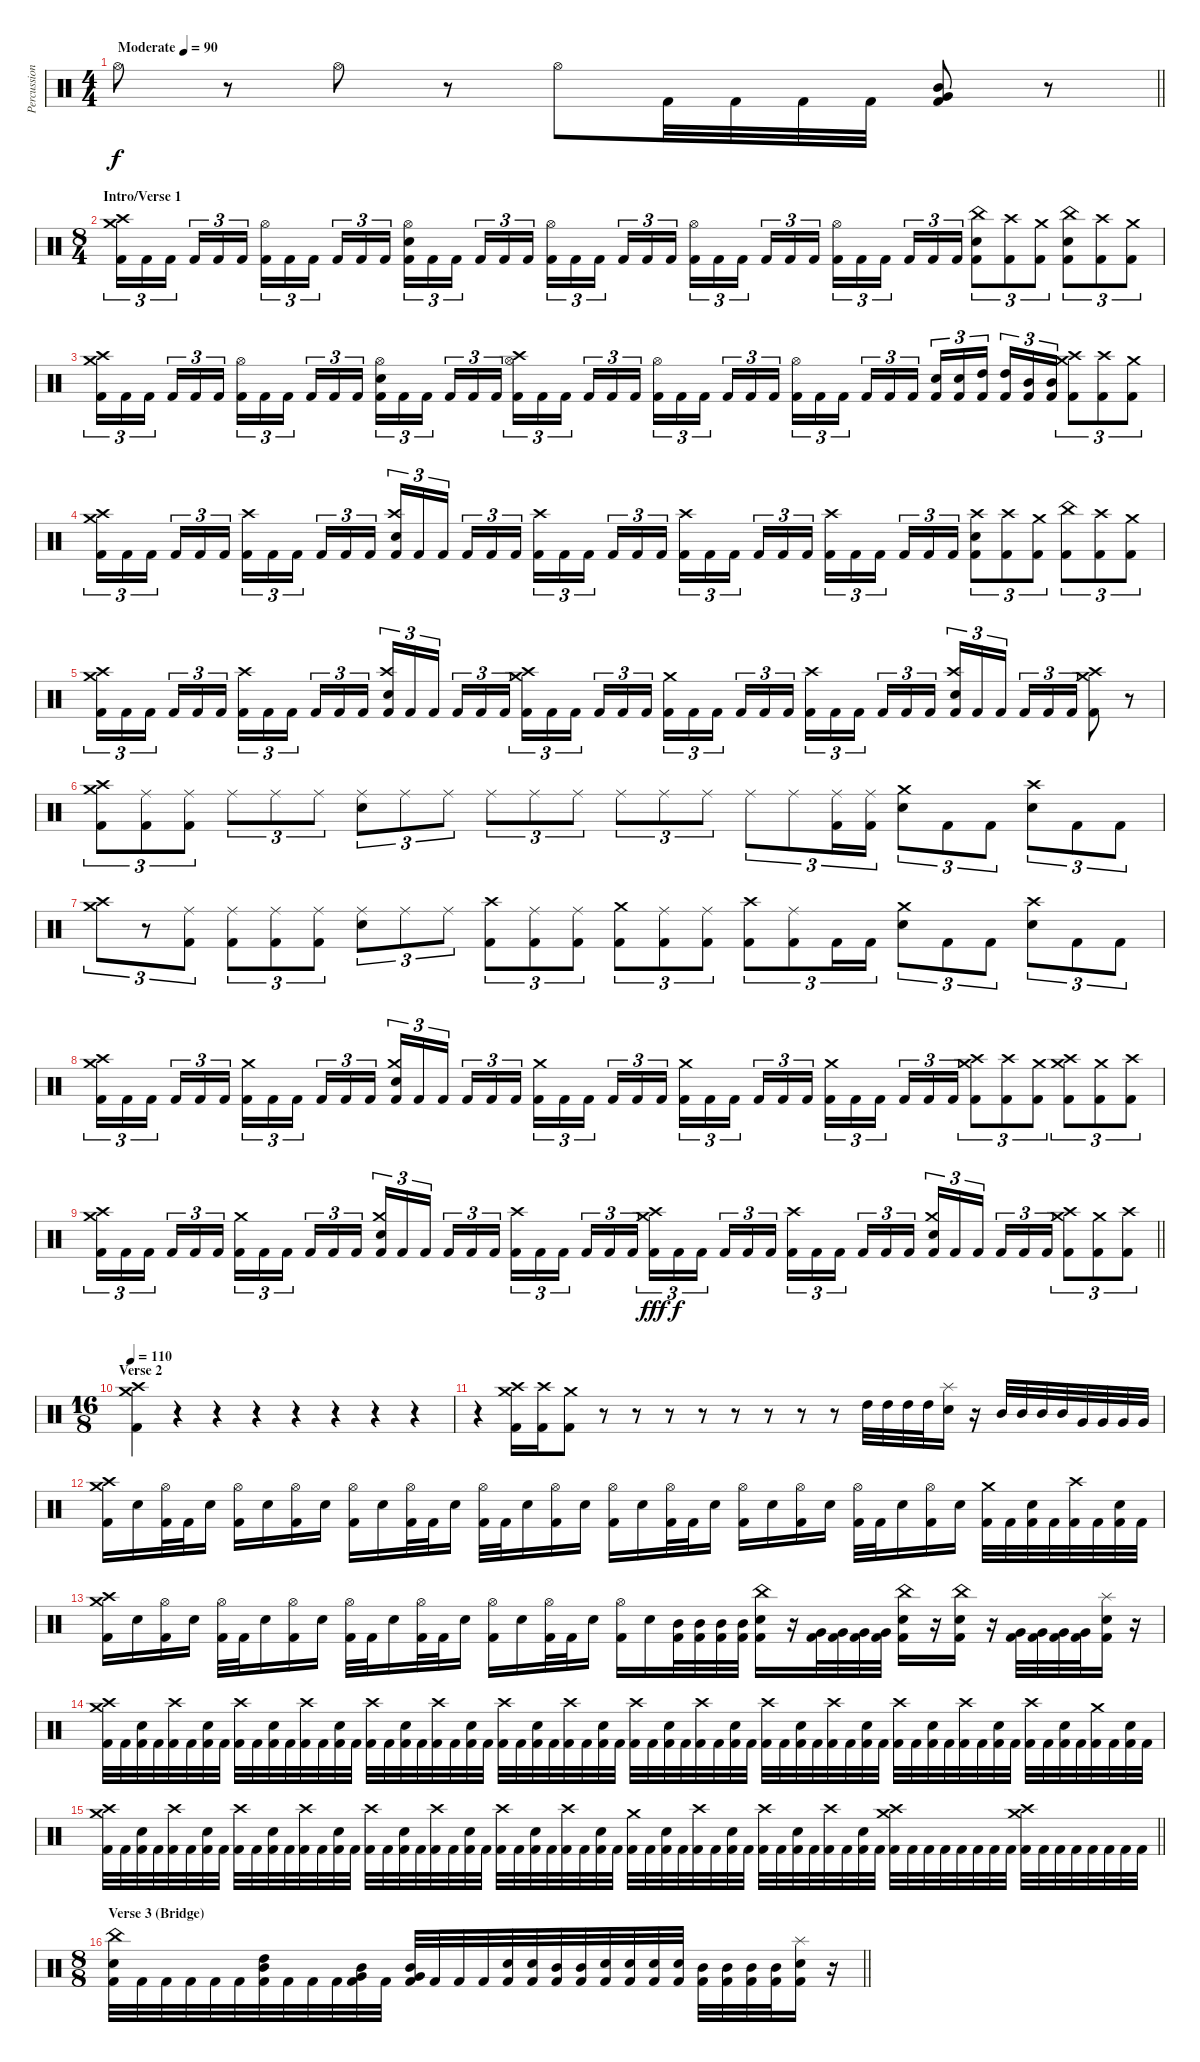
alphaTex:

\track ("Percussion" "Percussion") {instrument percussion}
\staff {score}
\articulation defaults
\ts (4 4)
\tempo (90 "Moderate")
\clef neutral
\barLineRight lightlight
\ks c "Hi-Hat (open)".8{dy f}
r.8 "Hi-Hat (open)".8 r.8 "Hi-Hat (open)".8 "Kick (hit) 2".32 "Kick (hit) 2".32 "Kick (hit) 2".32 "Kick (hit) 2".32 ("Mid Tom (hit)" "Very Low Tom (hit)" "Kick (hit) 2").8 r.8 |
\ts (8 4)
\section ("" "Intro/Verse 1")
("Crash medium (hit)" "Crash high (hit)" "Kick (hit) 2").16{tu (3 2)} "Kick (hit) 2".16{tu (3 2)} "Kick (hit) 2".16{tu (3 2) beam splitsecondary} "Kick (hit) 2".16{tu (3 2)} "Kick (hit) 2".16{tu (3 2)} "Kick (hit) 2".16{tu (3 2)} ("Hi-Hat (open)" "Kick (hit) 2").16{tu (3 2)} "Kick (hit) 2".16{tu (3 2)} "Kick (hit) 2".16{tu (3 2) beam splitsecondary} "Kick (hit) 2".16{tu (3 2)} "Kick (hit) 2".16{tu (3 2)} "Kick (hit) 2".16{tu (3 2)} ("Hi-Hat (open)" "Snare (hit) 2" "Kick (hit) 2").16{tu (3 2)} "Kick (hit) 2".16{tu (3 2)} "Kick (hit) 2".16{tu (3 2) beam splitsecondary} "Kick (hit) 2".16{tu (3 2)} "Kick (hit) 2".16{tu (3 2)} "Kick (hit) 2".16{tu (3 2)} ("Hi-Hat (open)" "Kick (hit) 2").16{tu (3 2)} "Kick (hit) 2".16{tu (3 2)} "Kick (hit) 2".16{tu (3 2) beam splitsecondary} "Kick (hit) 2".16{tu (3 2)} "Kick (hit) 2".16{tu (3 2)} "Kick (hit) 2".16{tu (3 2)} ("Hi-Hat (open)" "Kick (hit) 2").16{tu (3 2)} "Kick (hit) 2".16{tu (3 2)} "Kick (hit) 2".16{tu (3 2) beam splitsecondary} "Kick (hit) 2".16{tu (3 2)} "Kick (hit) 2".16{tu (3 2)} "Kick (hit) 2".16{tu (3 2)} ("Hi-Hat (open)" "Kick (hit) 2").16{tu (3 2)} "Kick (hit) 2".16{tu (3 2)} "Kick (hit) 2".16{tu (3 2) beam splitsecondary} "Kick (hit) 2".16{tu (3 2)} "Kick (hit) 2".16{tu (3 2)} "Kick (hit) 2".16{tu (3 2)} ("China (hit)" "Snare (hit) 2" "Kick (hit) 2").8{tu (3 2)} ("Crash high (hit)" "Kick (hit) 2").8{tu (3 2)} ("Crash medium (hit)" "Kick (hit) 2").8{tu (3 2)} ("China (hit)" "Snare (hit) 2" "Kick (hit) 2").8{tu (3 2)} ("Crash high (hit)" "Kick (hit) 2").8{tu (3 2)} ("Crash medium (hit)" "Kick (hit) 2").8{tu (3 2)} |
("Crash medium (hit)" "Crash high (hit)" "Kick (hit) 2").16{tu (3 2)} "Kick (hit) 2".16{tu (3 2)} "Kick (hit) 2".16{tu (3 2) beam splitsecondary} "Kick (hit) 2".16{tu (3 2)} "Kick (hit) 2".16{tu (3 2)} "Kick (hit) 2".16{tu (3 2)} ("Hi-Hat (open)" "Kick (hit) 2").16{tu (3 2)} "Kick (hit) 2".16{tu (3 2)} "Kick (hit) 2".16{tu (3 2) beam splitsecondary} "Kick (hit) 2".16{tu (3 2)} "Kick (hit) 2".16{tu (3 2)} "Kick (hit) 2".16{tu (3 2)} ("Hi-Hat (open)" "Snare (hit) 2" "Kick (hit) 2").16{tu (3 2)} "Kick (hit) 2".16{tu (3 2)} "Kick (hit) 2".16{tu (3 2) beam splitsecondary} "Kick (hit) 2".16{tu (3 2)} "Kick (hit) 2".16{tu (3 2)} "Kick (hit) 2".16{tu (3 2)} ("Crash high (hit)" "Hi-Hat (open)" "Kick (hit) 2").16{tu (3 2)} "Kick (hit) 2".16{tu (3 2)} "Kick (hit) 2".16{tu (3 2) beam splitsecondary} "Kick (hit) 2".16{tu (3 2)} "Kick (hit) 2".16{tu (3 2)} "Kick (hit) 2".16{tu (3 2)} ("Hi-Hat (open)" "Kick (hit) 2").16{tu (3 2)} "Kick (hit) 2".16{tu (3 2)} "Kick (hit) 2".16{tu (3 2) beam splitsecondary} "Kick (hit) 2".16{tu (3 2)} "Kick (hit) 2".16{tu (3 2)} "Kick (hit) 2".16{tu (3 2)} ("Hi-Hat (open)" "Kick (hit) 2").16{tu (3 2)} "Kick (hit) 2".16{tu (3 2)} "Kick (hit) 2".16{tu (3 2) beam splitsecondary} "Kick (hit) 2".16{tu (3 2)} "Kick (hit) 2".16{tu (3 2)} "Kick (hit) 2".16{tu (3 2)} ("Snare (hit) 2" "Kick (hit) 2").16{tu (3 2)} ("Snare (hit) 2" "Kick (hit) 2").16{tu (3 2)} ("High Tom (hit)" "Kick (hit) 2").16{tu (3 2) beam splitsecondary} ("High Tom (hit)" "Kick (hit) 2").16{tu (3 2)} ("Mid Tom (hit)" "Kick (hit) 2").16{tu (3 2)} ("Mid Tom (hit)" "Kick (hit) 2").16{tu (3 2)} ("Crash medium (hit)" "Crash high (hit)" "Kick (hit) 2").8{tu (3 2)} ("Crash high (hit)" "Kick (hit) 2").8{tu (3 2)} ("Crash medium (hit)" "Kick (hit) 2").8{tu (3 2)} |
("Crash medium (hit)" "Crash high (hit)" "Kick (hit) 2").16{tu (3 2)} "Kick (hit) 2".16{tu (3 2)} "Kick (hit) 2".16{tu (3 2) beam splitsecondary} "Kick (hit) 2".16{tu (3 2)} "Kick (hit) 2".16{tu (3 2)} "Kick (hit) 2".16{tu (3 2)} ("Crash high (hit)" "Kick (hit) 2").16{tu (3 2)} "Kick (hit) 2".16{tu (3 2)} "Kick (hit) 2".16{tu (3 2) beam splitsecondary} "Kick (hit) 2".16{tu (3 2)} "Kick (hit) 2".16{tu (3 2)} "Kick (hit) 2".16{tu (3 2)} ("Crash high (hit)" "Snare (hit) 2" "Kick (hit) 2").16{tu (3 2)} "Kick (hit) 2".16{tu (3 2)} "Kick (hit) 2".16{tu (3 2) beam splitsecondary} "Kick (hit) 2".16{tu (3 2)} "Kick (hit) 2".16{tu (3 2)} "Kick (hit) 2".16{tu (3 2)} ("Crash high (hit)" "Kick (hit) 2").16{tu (3 2)} "Kick (hit) 2".16{tu (3 2)} "Kick (hit) 2".16{tu (3 2) beam splitsecondary} "Kick (hit) 2".16{tu (3 2)} "Kick (hit) 2".16{tu (3 2)} "Kick (hit) 2".16{tu (3 2)} ("Crash high (hit)" "Kick (hit) 2").16{tu (3 2)} "Kick (hit) 2".16{tu (3 2)} "Kick (hit) 2".16{tu (3 2) beam splitsecondary} "Kick (hit) 2".16{tu (3 2)} "Kick (hit) 2".16{tu (3 2)} "Kick (hit) 2".16{tu (3 2)} ("Crash high (hit)" "Kick (hit) 2").16{tu (3 2)} "Kick (hit) 2".16{tu (3 2)} "Kick (hit) 2".16{tu (3 2) beam splitsecondary} "Kick (hit) 2".16{tu (3 2)} "Kick (hit) 2".16{tu (3 2)} "Kick (hit) 2".16{tu (3 2)} ("Crash high (hit)" "Snare (hit) 2" "Kick (hit) 2").8{tu (3 2)} ("Crash high (hit)" "Kick (hit) 2").8{tu (3 2)} ("Crash medium (hit)" "Kick (hit) 2").8{tu (3 2)} ("China (hit)" "Kick (hit) 2").8{tu (3 2)} ("Crash high (hit)" "Kick (hit) 2").8{tu (3 2)} ("Crash medium (hit)" "Kick (hit) 2").8{tu (3 2)} |
("Crash medium (hit)" "Crash high (hit)" "Kick (hit) 2").16{tu (3 2)} "Kick (hit) 2".16{tu (3 2)} "Kick (hit) 2".16{tu (3 2) beam splitsecondary} "Kick (hit) 2".16{tu (3 2)} "Kick (hit) 2".16{tu (3 2)} "Kick (hit) 2".16{tu (3 2)} ("Crash high (hit)" "Kick (hit) 2").16{tu (3 2)} "Kick (hit) 2".16{tu (3 2)} "Kick (hit) 2".16{tu (3 2) beam splitsecondary} "Kick (hit) 2".16{tu (3 2)} "Kick (hit) 2".16{tu (3 2)} "Kick (hit) 2".16{tu (3 2)} ("Crash high (hit)" "Snare (hit) 2" "Kick (hit) 2").16{tu (3 2)} "Kick (hit) 2".16{tu (3 2)} "Kick (hit) 2".16{tu (3 2) beam splitsecondary} "Kick (hit) 2".16{tu (3 2)} "Kick (hit) 2".16{tu (3 2)} "Kick (hit) 2".16{tu (3 2)} ("Crash medium (hit)" "Crash high (hit)" "Kick (hit) 2").16{tu (3 2)} "Kick (hit) 2".16{tu (3 2)} "Kick (hit) 2".16{tu (3 2) beam splitsecondary} "Kick (hit) 2".16{tu (3 2)} "Kick (hit) 2".16{tu (3 2)} "Kick (hit) 2".16{tu (3 2)} ("Crash medium (hit)" "Kick (hit) 2").16{tu (3 2)} "Kick (hit) 2".16{tu (3 2)} "Kick (hit) 2".16{tu (3 2) beam splitsecondary} "Kick (hit) 2".16{tu (3 2)} "Kick (hit) 2".16{tu (3 2)} "Kick (hit) 2".16{tu (3 2)} ("Crash high (hit)" "Kick (hit) 2").16{tu (3 2)} "Kick (hit) 2".16{tu (3 2)} "Kick (hit) 2".16{tu (3 2) beam splitsecondary} "Kick (hit) 2".16{tu (3 2)} "Kick (hit) 2".16{tu (3 2)} "Kick (hit) 2".16{tu (3 2)} ("Crash high (hit)" "Snare (hit) 2" "Kick (hit) 2").16{tu (3 2)} "Kick (hit) 2".16{tu (3 2)} "Kick (hit) 2".16{tu (3 2) beam splitsecondary} "Kick (hit) 2".16{tu (3 2)} "Kick (hit) 2".16{tu (3 2)} "Kick (hit) 2".16{tu (3 2)} ("Crash medium (hit)" "Crash high (hit)" "Kick (hit) 2").8 r.8 |
("Crash medium (hit)" "Crash high (hit)" "Kick (hit) 2").8{tu (3 2)} ("Ride (middle)" "Kick (hit) 2").8{tu (3 2)} ("Ride (middle)" "Kick (hit) 2").8{tu (3 2)} "Ride (middle)".8{tu (3 2)} "Ride (middle)".8{tu (3 2)} "Ride (middle)".8{tu (3 2)} ("Ride (middle)" "Snare (hit) 2").8{tu (3 2)} "Ride (middle)".8{tu (3 2)} "Ride (middle)".8{tu (3 2)} "Ride (middle)".8{tu (3 2)} "Ride (middle)".8{tu (3 2)} "Ride (middle)".8{tu (3 2)} "Ride (middle)".8{tu (3 2)} "Ride (middle)".8{tu (3 2)} "Ride (middle)".8{tu (3 2)} "Ride (middle)".8{tu (3 2)} "Ride (middle)".8{tu (3 2)} ("Ride (middle)" "Kick (hit) 2").16{tu (3 2)} ("Ride (middle)" "Kick (hit) 2").16{tu (3 2)} ("Crash medium (hit)" "Snare (hit) 2").8{tu (3 2)} "Kick (hit) 2".8{tu (3 2)} "Kick (hit) 2".8{tu (3 2)} ("Crash high (hit)" "Snare (hit) 2").8{tu (3 2)} "Kick (hit) 2".8{tu (3 2)} "Kick (hit) 2".8{tu (3 2)} |
("Crash medium (hit)" "Crash high (hit)").8{tu (3 2)} r.8{tu (3 2)} ("Ride (middle)" "Kick (hit) 2").8{tu (3 2)} ("Ride (middle)" "Kick (hit) 2").8{tu (3 2)} ("Ride (middle)" "Kick (hit) 2").8{tu (3 2)} ("Ride (middle)" "Kick (hit) 2").8{tu (3 2)} ("Ride (middle)" "Snare (hit) 2").8{tu (3 2)} "Ride (middle)".8{tu (3 2)} "Ride (middle)".8{tu (3 2)} ("Crash high (hit)" "Kick (hit) 2").8{tu (3 2)} ("Ride (middle)" "Kick (hit) 2").8{tu (3 2)} ("Ride (middle)" "Kick (hit) 2").8{tu (3 2)} ("Crash medium (hit)" "Kick (hit) 2").8{tu (3 2)} ("Ride (middle)" "Kick (hit) 2").8{tu (3 2)} ("Ride (middle)" "Kick (hit) 2").8{tu (3 2)} ("Crash high (hit)" "Kick (hit) 2").8{tu (3 2)} ("Ride (middle)" "Kick (hit) 2").8{tu (3 2)} "Kick (hit) 2".16{tu (3 2)} "Kick (hit) 2".16{tu (3 2)} ("Crash medium (hit)" "Snare (hit) 2").8{tu (3 2)} "Kick (hit) 2".8{tu (3 2)} "Kick (hit) 2".8{tu (3 2)} ("Crash high (hit)" "Snare (hit) 2").8{tu (3 2)} "Kick (hit) 2".8{tu (3 2)} "Kick (hit) 2".8{tu (3 2)} |
("Crash medium (hit)" "Crash high (hit)" "Kick (hit) 2").16{tu (3 2)} "Kick (hit) 2".16{tu (3 2)} "Kick (hit) 2".16{tu (3 2) beam splitsecondary} "Kick (hit) 2".16{tu (3 2)} "Kick (hit) 2".16{tu (3 2)} "Kick (hit) 2".16{tu (3 2)} ("Crash medium (hit)" "Kick (hit) 2").16{tu (3 2)} "Kick (hit) 2".16{tu (3 2)} "Kick (hit) 2".16{tu (3 2) beam splitsecondary} "Kick (hit) 2".16{tu (3 2)} "Kick (hit) 2".16{tu (3 2)} "Kick (hit) 2".16{tu (3 2)} ("Crash medium (hit)" "Snare (hit) 2" "Kick (hit) 2").16{tu (3 2)} "Kick (hit) 2".16{tu (3 2)} "Kick (hit) 2".16{tu (3 2) beam splitsecondary} "Kick (hit) 2".16{tu (3 2)} "Kick (hit) 2".16{tu (3 2)} "Kick (hit) 2".16{tu (3 2)} ("Crash medium (hit)" "Kick (hit) 2").16{tu (3 2)} "Kick (hit) 2".16{tu (3 2)} "Kick (hit) 2".16{tu (3 2) beam splitsecondary} "Kick (hit) 2".16{tu (3 2)} "Kick (hit) 2".16{tu (3 2)} "Kick (hit) 2".16{tu (3 2)} ("Crash medium (hit)" "Kick (hit) 2").16{tu (3 2)} "Kick (hit) 2".16{tu (3 2)} "Kick (hit) 2".16{tu (3 2) beam splitsecondary} "Kick (hit) 2".16{tu (3 2)} "Kick (hit) 2".16{tu (3 2)} "Kick (hit) 2".16{tu (3 2)} ("Crash medium (hit)" "Kick (hit) 2").16{tu (3 2)} "Kick (hit) 2".16{tu (3 2)} "Kick (hit) 2".16{tu (3 2) beam splitsecondary} "Kick (hit) 2".16{tu (3 2)} "Kick (hit) 2".16{tu (3 2)} "Kick (hit) 2".16{tu (3 2)} ("Crash medium (hit)" "Crash high (hit)" "Kick (hit) 2").8{tu (3 2)} ("Crash high (hit)" "Kick (hit) 2").8{tu (3 2)} ("Crash medium (hit)" "Kick (hit) 2").8{tu (3 2)} ("Crash medium (hit)" "Crash high (hit)" "Kick (hit) 2").8{tu (3 2)} ("Crash medium (hit)" "Kick (hit) 2").8{tu (3 2)} ("Crash high (hit)" "Kick (hit) 2").8{tu (3 2)} |
\barLineRight lightlight
("Crash medium (hit)" "Crash high (hit)" "Kick (hit) 2").16{tu (3 2)} "Kick (hit) 2".16{tu (3 2)} "Kick (hit) 2".16{tu (3 2) beam splitsecondary} "Kick (hit) 2".16{tu (3 2)} "Kick (hit) 2".16{tu (3 2)} "Kick (hit) 2".16{tu (3 2)} ("Crash medium (hit)" "Kick (hit) 2").16{tu (3 2)} "Kick (hit) 2".16{tu (3 2)} "Kick (hit) 2".16{tu (3 2) beam splitsecondary} "Kick (hit) 2".16{tu (3 2)} "Kick (hit) 2".16{tu (3 2)} "Kick (hit) 2".16{tu (3 2)} ("Crash medium (hit)" "Snare (hit) 2" "Kick (hit) 2").16{tu (3 2)} "Kick (hit) 2".16{tu (3 2)} "Kick (hit) 2".16{tu (3 2) beam splitsecondary} "Kick (hit) 2".16{tu (3 2)} "Kick (hit) 2".16{tu (3 2)} "Kick (hit) 2".16{tu (3 2)} ("Crash high (hit)" "Kick (hit) 2").16{tu (3 2)} "Kick (hit) 2".16{tu (3 2)} "Kick (hit) 2".16{tu (3 2) beam splitsecondary} "Kick (hit) 2".16{tu (3 2)} "Kick (hit) 2".16{tu (3 2)} "Kick (hit) 2".16{tu (3 2)} ("Crash medium (hit)" "Crash high (hit)" "Kick (hit) 2").16{tu (3 2) dy fff} "Kick (hit) 2".16{tu (3 2) dy f} "Kick (hit) 2".16{tu (3 2) beam splitsecondary} "Kick (hit) 2".16{tu (3 2)} "Kick (hit) 2".16{tu (3 2)} "Kick (hit) 2".16{tu (3 2)} ("Crash high (hit)" "Kick (hit) 2").16{tu (3 2)} "Kick (hit) 2".16{tu (3 2)} "Kick (hit) 2".16{tu (3 2) beam splitsecondary} "Kick (hit) 2".16{tu (3 2)} "Kick (hit) 2".16{tu (3 2)} "Kick (hit) 2".16{tu (3 2)} ("Crash medium (hit)" "Snare (hit) 2" "Kick (hit) 2").16{tu (3 2)} "Kick (hit) 2".16{tu (3 2)} "Kick (hit) 2".16{tu (3 2) beam splitsecondary} "Kick (hit) 2".16{tu (3 2)} "Kick (hit) 2".16{tu (3 2)} "Kick (hit) 2".16{tu (3 2)} ("Crash medium (hit)" "Crash high (hit)" "Kick (hit) 2").8{tu (3 2)} ("Crash medium (hit)" "Kick (hit) 2").8{tu (3 2)} ("Crash high (hit)" "Kick (hit) 2").8{tu (3 2)} |
\ts (16 8)
\section ("" "Verse 2")
\tempo 110
("Crash high (hit)" "Crash medium (hit)" "Kick (hit) 2").4 r.4 r.4 r.4 r.4 r.4 r.4 r.4 |
r.4 ("Crash high (hit)" "Crash medium (hit)" "Kick (hit) 2").16 ("Crash high (hit)" "Kick (hit) 2").16 ("Crash medium (hit)" "Kick (hit) 2").8 r.8 r.8 r.8 r.8 r.8 r.8 r.8 r.8 "High Tom (hit)".32 "High Tom (hit)".32 "High Tom (hit)".32 "High Tom (hit)".32 ("Splash (hit)" "Snare (hit) 2").16 r.16 "Mid Tom (hit)".32 "Mid Tom (hit)".32 "Mid Tom (hit)".32 "Mid Tom (hit)".32 "Very Low Tom (hit)".32 "Very Low Tom (hit)".32 "Very Low Tom (hit)".32 "Very Low Tom (hit)".32 |
("Crash medium (hit)" "Crash high (hit)" "Kick (hit) 2").16 "Snare (hit) 2".16 ("Hi-Hat (open)" "Kick (hit) 2").32 "Kick (hit) 2".32 "Snare (hit) 2".16 ("Hi-Hat (open)" "Kick (hit) 2").16 "Snare (hit) 2".16 ("Hi-Hat (open)" "Kick (hit) 2").16 "Snare (hit) 2".16 ("Hi-Hat (open)" "Kick (hit) 2").16 "Snare (hit) 2".16 ("Hi-Hat (open)" "Kick (hit) 2").32 "Kick (hit) 2".32 "Snare (hit) 2".16 ("Hi-Hat (open)" "Kick (hit) 2").32 "Kick (hit) 2".32 "Snare (hit) 2".16 ("Hi-Hat (open)" "Kick (hit) 2").16 "Snare (hit) 2".16 ("Hi-Hat (open)" "Kick (hit) 2").16 "Snare (hit) 2".16 ("Hi-Hat (open)" "Kick (hit) 2").32 "Kick (hit) 2".32 "Snare (hit) 2".16 ("Hi-Hat (open)" "Kick (hit) 2").16 "Snare (hit) 2".16 ("Hi-Hat (open)" "Kick (hit) 2").16 "Snare (hit) 2".16 ("Hi-Hat (open)" "Kick (hit) 2").32 "Kick (hit) 2".32 "Snare (hit) 2".16 ("Hi-Hat (open)" "Kick (hit) 2").16 "Snare (hit) 2".16 ("Crash medium (hit)" "Kick (hit) 2").32 "Kick (hit) 2".32 ("Snare (hit) 2" "Kick (hit) 2").32 "Kick (hit) 2".32 ("Crash high (hit)" "Kick (hit) 2").32 "Kick (hit) 2".32 ("Snare (hit) 2" "Kick (hit) 2").32 "Kick (hit) 2".32 |
("Crash medium (hit)" "Crash high (hit)" "Kick (hit) 2").16 "Snare (hit) 2".16 ("Hi-Hat (open)" "Kick (hit) 2").16 "Snare (hit) 2".16 ("Hi-Hat (open)" "Kick (hit) 2").32 "Kick (hit) 2".32 "Snare (hit) 2".16 ("Hi-Hat (open)" "Kick (hit) 2").16 "Snare (hit) 2".16 ("Hi-Hat (open)" "Kick (hit) 2").32 "Kick (hit) 2".32 "Snare (hit) 2".16 ("Hi-Hat (open)" "Kick (hit) 2").32 "Kick (hit) 2".32 "Snare (hit) 2".16 ("Hi-Hat (open)" "Kick (hit) 2").16 "Snare (hit) 2".16 ("Hi-Hat (open)" "Kick (hit) 2").32 "Kick (hit) 2".32 "Snare (hit) 2".16 ("Hi-Hat (open)" "Kick (hit) 2").16 "Snare (hit) 2".16 ("Mid Tom (hit)" "Kick (hit) 2").32 ("Mid Tom (hit)" "Kick (hit) 2").32 ("Mid Tom (hit)" "Kick (hit) 2").32 ("Mid Tom (hit)" "Kick (hit) 2").32 ("China (hit)" "Snare (hit) 2" "Kick (hit) 2").16 r.16 ("Very Low Tom (hit)" "Kick (hit) 2").32 ("Very Low Tom (hit)" "Kick (hit) 2").32 ("Very Low Tom (hit)" "Kick (hit) 2").32 ("Very Low Tom (hit)" "Kick (hit) 2").32 ("China (hit)" "Snare (hit) 2" "Kick (hit) 2").16 r.16 ("China (hit)" "Snare (hit) 2" "Kick (hit) 2").16 r.16 ("Very Low Tom (hit)" "Kick (hit) 2").32 ("Very Low Tom (hit)" "Kick (hit) 2").32 ("Very Low Tom (hit)" "Kick (hit) 2").32 ("Very Low Tom (hit)" "Kick (hit) 2").32 ("Splash (hit)" "Snare (hit) 2" "Kick (hit) 2").16 r.16 |
("Crash medium (hit)" "Crash high (hit)" "Kick (hit) 2").32 "Kick (hit) 2".32 ("Snare (hit) 2" "Kick (hit) 2").32 "Kick (hit) 2".32 ("Crash high (hit)" "Kick (hit) 2").32 "Kick (hit) 2".32 ("Snare (hit) 2" "Kick (hit) 2").32 "Kick (hit) 2".32 ("Crash high (hit)" "Kick (hit) 2").32 "Kick (hit) 2".32 ("Snare (hit) 2" "Kick (hit) 2").32 "Kick (hit) 2".32 ("Crash high (hit)" "Kick (hit) 2").32 "Kick (hit) 2".32 ("Snare (hit) 2" "Kick (hit) 2").32 "Kick (hit) 2".32 ("Crash high (hit)" "Kick (hit) 2").32 "Kick (hit) 2".32 ("Snare (hit) 2" "Kick (hit) 2").32 "Kick (hit) 2".32 ("Crash high (hit)" "Kick (hit) 2").32 "Kick (hit) 2".32 ("Snare (hit) 2" "Kick (hit) 2").32 "Kick (hit) 2".32 ("Crash high (hit)" "Kick (hit) 2").32 "Kick (hit) 2".32 ("Snare (hit) 2" "Kick (hit) 2").32 "Kick (hit) 2".32 ("Crash high (hit)" "Kick (hit) 2").32 "Kick (hit) 2".32 ("Snare (hit) 2" "Kick (hit) 2").32 "Kick (hit) 2".32 ("Crash high (hit)" "Kick (hit) 2").32 "Kick (hit) 2".32 ("Snare (hit) 2" "Kick (hit) 2").32 "Kick (hit) 2".32 ("Crash high (hit)" "Kick (hit) 2").32 "Kick (hit) 2".32 ("Snare (hit) 2" "Kick (hit) 2").32 "Kick (hit) 2".32 ("Crash high (hit)" "Kick (hit) 2").32 "Kick (hit) 2".32 ("Snare (hit) 2" "Kick (hit) 2").32 "Kick (hit) 2".32 ("Crash high (hit)" "Kick (hit) 2").32 "Kick (hit) 2".32 ("Snare (hit) 2" "Kick (hit) 2").32 "Kick (hit) 2".32 ("Crash high (hit)" "Kick (hit) 2").32 "Kick (hit) 2".32 ("Snare (hit) 2" "Kick (hit) 2").32 "Kick (hit) 2".32 ("Crash high (hit)" "Kick (hit) 2").32 "Kick (hit) 2".32 ("Snare (hit) 2" "Kick (hit) 2").32 "Kick (hit) 2".32 ("Crash high (hit)" "Kick (hit) 2").32 "Kick (hit) 2".32 ("Snare (hit) 2" "Kick (hit) 2").32 "Kick (hit) 2".32 ("Crash medium (hit)" "Kick (hit) 2").32 "Kick (hit) 2".32 ("Snare (hit) 2" "Kick (hit) 2").32 "Kick (hit) 2".32 |
\barLineRight lightlight
("Crash medium (hit)" "Crash high (hit)" "Kick (hit) 2").32 "Kick (hit) 2".32 ("Snare (hit) 2" "Kick (hit) 2").32 "Kick (hit) 2".32 ("Crash high (hit)" "Kick (hit) 2").32 "Kick (hit) 2".32 ("Snare (hit) 2" "Kick (hit) 2").32 "Kick (hit) 2".32 ("Crash high (hit)" "Kick (hit) 2").32 "Kick (hit) 2".32 ("Snare (hit) 2" "Kick (hit) 2").32 "Kick (hit) 2".32 ("Crash high (hit)" "Kick (hit) 2").32 "Kick (hit) 2".32 ("Snare (hit) 2" "Kick (hit) 2").32 "Kick (hit) 2".32 ("Crash high (hit)" "Kick (hit) 2").32 "Kick (hit) 2".32 ("Snare (hit) 2" "Kick (hit) 2").32 "Kick (hit) 2".32 ("Crash high (hit)" "Kick (hit) 2").32 "Kick (hit) 2".32 ("Snare (hit) 2" "Kick (hit) 2").32 "Kick (hit) 2".32 ("Crash high (hit)" "Kick (hit) 2").32 "Kick (hit) 2".32 ("Snare (hit) 2" "Kick (hit) 2").32 "Kick (hit) 2".32 ("Crash high (hit)" "Kick (hit) 2").32 "Kick (hit) 2".32 ("Snare (hit) 2" "Kick (hit) 2").32 "Kick (hit) 2".32 ("Crash medium (hit)" "Kick (hit) 2").32 "Kick (hit) 2".32 ("Snare (hit) 2" "Kick (hit) 2").32 "Kick (hit) 2".32 ("Crash high (hit)" "Kick (hit) 2").32 "Kick (hit) 2".32 ("Snare (hit) 2" "Kick (hit) 2").32 "Kick (hit) 2".32 ("Crash high (hit)" "Kick (hit) 2").32 "Kick (hit) 2".32 ("Snare (hit) 2" "Kick (hit) 2").32 "Kick (hit) 2".32 ("Crash high (hit)" "Kick (hit) 2").32 "Kick (hit) 2".32 ("Snare (hit) 2" "Kick (hit) 2").32 "Kick (hit) 2".32 ("Crash medium (hit)" "Crash high (hit)" "Kick (hit) 2").32 "Kick (hit) 2".32 "Kick (hit) 2".32 "Kick (hit) 2".32 "Kick (hit) 2".32 "Kick (hit) 2".32 "Kick (hit) 2".32 "Kick (hit) 2".32 ("Crash medium (hit)" "Crash high (hit)" "Kick (hit) 2").32 "Kick (hit) 2".32 "Kick (hit) 2".32 "Kick (hit) 2".32 "Kick (hit) 2".32 "Kick (hit) 2".32 "Kick (hit) 2".32 "Kick (hit) 2".32 |
\ts (8 8)
\section ("" "Verse 3 (Bridge)")
\barLineRight lightlight
("China (hit)" "Snare (hit) 2" "Kick (hit) 2").32 "Kick (hit) 2".32 "Kick (hit) 2".32 "Kick (hit) 2".32 "Kick (hit) 2".32 "Kick (hit) 2".32 ("Mid Tom (hit)" "High Tom (hit)" "Kick (hit) 2").32 "Kick (hit) 2".32 "Kick (hit) 2".32 "Kick (hit) 2".32 ("Very Low Tom (hit)" "Mid Tom (hit)" "Kick (hit) 2").32 "Kick (hit) 2".32 ("Very Low Tom (hit)" "Mid Tom (hit)" "Kick (hit) 2").32 "Kick (hit) 2".32 "Kick (hit) 2".32 "Kick (hit) 2".32 ("Snare (hit) 2" "Kick (hit) 2").32 ("Snare (hit) 2" "Kick (hit) 2").32 ("Mid Tom (hit)" "Kick (hit) 2").32 ("Mid Tom (hit)" "Kick (hit) 2").32 ("Snare (hit) 2" "Kick (hit) 2").32 ("Snare (hit) 2" "Kick (hit) 2").32 ("Snare (hit) 2" "Kick (hit) 2").32 ("Snare (hit) 2" "Kick (hit) 2").32 ("Mid Tom (hit)" "Kick (hit) 2").32 ("Mid Tom (hit)" "Kick (hit) 2").32 ("Mid Tom (hit)" "Kick (hit) 2").32 ("Mid Tom (hit)" "Kick (hit) 2").32 ("Splash (hit)" "Snare (hit) 2" "Kick (hit) 2").16 r.16
